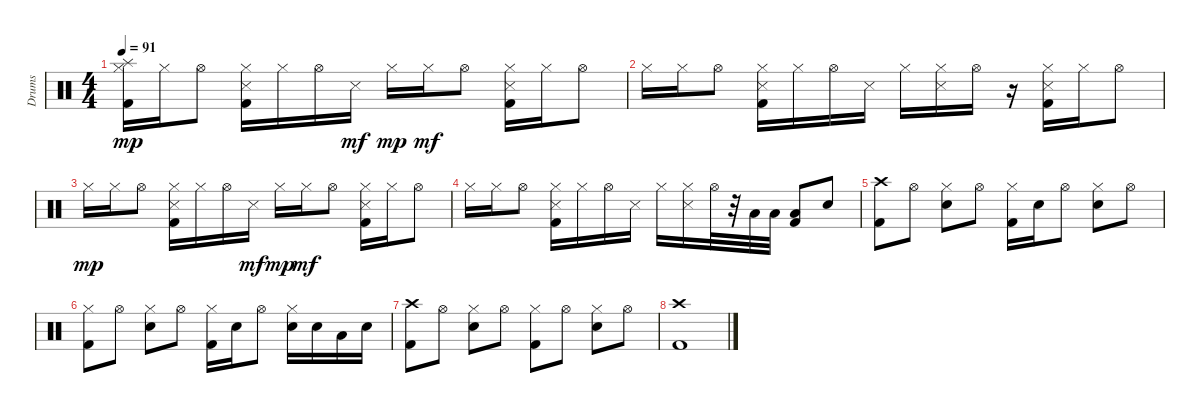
\track ("Drums" "Drums") {instrument percussion}
\staff {score}
\articulation defaults
\ts (4 4)
\tempo 91
\clef neutral
\ks c
("Hi-Hat (closed)" "Kick (hit) 2" "Splash (hit)").16{dy mp} "Hi-Hat (closed)".16 "Hi-Hat (open)".8 ("Hi-Hat (closed)" "Snare (side stick) 3" "Kick (hit) 2").16 "Hi-Hat (closed)".16 "Hi-Hat (open)".16 "Snare (side stick) 3".16{dy mf} "Hi-Hat (closed)".16{dy mp} "Hi-Hat (closed)".16{dy mf} "Hi-Hat (open)".8 ("Hi-Hat (closed)" "Snare (side stick) 3" "Kick (hit) 2").16 "Hi-Hat (closed)".16 "Hi-Hat (open)".8 |
"Hi-Hat (closed)".16 "Hi-Hat (closed)".16 "Hi-Hat (open)".8 ("Hi-Hat (closed)" "Kick (hit) 2" "Snare (side stick) 3").16 "Hi-Hat (closed)".16 "Hi-Hat (open)".16 "Snare (side stick) 3".16 "Hi-Hat (closed)".16 ("Hi-Hat (closed)" "Snare (side stick) 3").16 "Hi-Hat (open)".16 r.16 ("Hi-Hat (closed)" "Snare (side stick) 3" "Kick (hit) 2").16 "Hi-Hat (closed)".16 "Hi-Hat (open)".8 |
"Hi-Hat (closed)".16{dy mp} "Hi-Hat (closed)".16 "Hi-Hat (open)".8 ("Hi-Hat (closed)" "Snare (side stick) 3" "Kick (hit) 2").16 "Hi-Hat (closed)".16 "Hi-Hat (open)".16 "Snare (side stick) 3".16{dy mf} "Hi-Hat (closed)".16{dy mp} "Hi-Hat (closed)".16{dy mf} "Hi-Hat (open)".8 ("Hi-Hat (closed)" "Snare (side stick) 3" "Kick (hit) 2").16 "Hi-Hat (closed)".16 "Hi-Hat (open)".8 |
"Hi-Hat (closed)".16 "Hi-Hat (closed)".16 "Hi-Hat (open)".8 ("Hi-Hat (closed)" "Kick (hit) 2" "Snare (side stick) 3").16 "Hi-Hat (closed)".16 "Hi-Hat (open)".16 "Snare (side stick) 3".16 "Hi-Hat (closed)".16 ("Hi-Hat (closed)" "Snare (side stick) 3").16 "Hi-Hat (open)".32 r.32 "Low Tom (hit)".32 "Low Tom (hit)".32 ("Low Tom (hit)" "Kick (hit) 2").8 "Snare (hit) 2".8 |
("Crash high (hit)" "Kick (hit) 2").8 "Hi-Hat (open)".8 ("Hi-Hat (closed)" "Snare (hit) 2").8 "Hi-Hat (open)".8 ("Hi-Hat (closed)" "Kick (hit) 2").16 "Snare (hit) 2".16 "Hi-Hat (open)".8 ("Hi-Hat (closed)" "Snare (hit) 2").8 "Hi-Hat (open)".8 |
("Hi-Hat (closed)" "Kick (hit) 2").8 "Hi-Hat (open)".8 ("Hi-Hat (closed)" "Snare (hit) 2").8 "Hi-Hat (open)".8 ("Hi-Hat (closed)" "Kick (hit) 2").16 "Snare (hit) 2".16 "Hi-Hat (open)".8 ("Hi-Hat (closed)" "Snare (hit) 2").16 "Snare (hit) 2".16 "Low Tom (hit)".16 "Snare (hit) 2".16 |
("Crash high (hit)" "Kick (hit) 2").8 "Hi-Hat (open)".8 ("Hi-Hat (closed)" "Snare (hit) 2").8 "Hi-Hat (open)".8 ("Hi-Hat (closed)" "Kick (hit) 2").8 "Hi-Hat (open)".8 ("Hi-Hat (closed)" "Snare (hit) 2").8 "Hi-Hat (open)".8 |
("Crash high (hit)" "Kick (hit) 2").1
